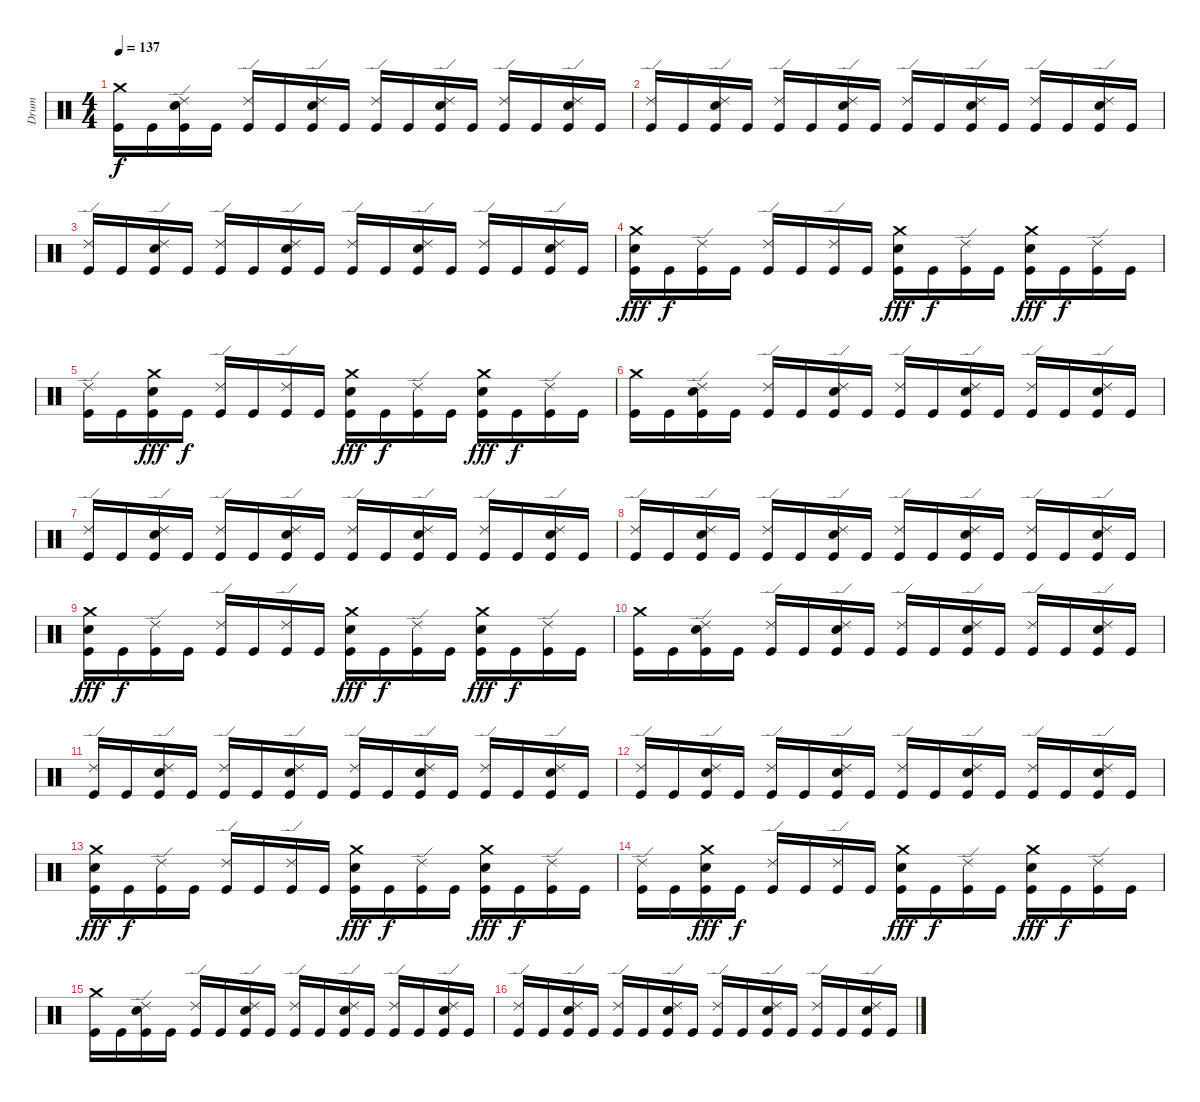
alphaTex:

\track ("Drum" "Drum") {instrument percussion}
\staff {score}
\articulation defaults
\ts (4 4)
\tempo 137
\clef neutral
\ks c
("Crash medium (hit)" "Kick (hit)").16{dy f} "Kick (hit)".16 ("Ride (edge) 2" "Snare (hit) 2" "Kick (hit)").16 "Kick (hit)".16 ("Ride (edge) 2" "Kick (hit)").16 "Kick (hit)".16 ("Ride (edge) 2" "Snare (hit) 2" "Kick (hit)").16 "Kick (hit)".16 ("Ride (edge) 2" "Kick (hit)").16 "Kick (hit)".16 ("Ride (edge) 2" "Snare (hit) 2" "Kick (hit)").16 "Kick (hit)".16 ("Ride (edge) 2" "Kick (hit)").16 "Kick (hit)".16 ("Ride (edge) 2" "Snare (hit) 2" "Kick (hit)").16 "Kick (hit)".16 |
("Ride (edge) 2" "Kick (hit)").16 "Kick (hit)".16 ("Ride (edge) 2" "Snare (hit) 2" "Kick (hit)").16 "Kick (hit)".16 ("Ride (edge) 2" "Kick (hit)").16 "Kick (hit)".16 ("Ride (edge) 2" "Snare (hit) 2" "Kick (hit)").16 "Kick (hit)".16 ("Ride (edge) 2" "Kick (hit)").16 "Kick (hit)".16 ("Ride (edge) 2" "Snare (hit) 2" "Kick (hit)").16 "Kick (hit)".16 ("Ride (edge) 2" "Kick (hit)").16 "Kick (hit)".16 ("Ride (edge) 2" "Snare (hit) 2" "Kick (hit)").16 "Kick (hit)".16 |
("Ride (edge) 2" "Kick (hit)").16 "Kick (hit)".16 ("Ride (edge) 2" "Snare (hit) 2" "Kick (hit)").16 "Kick (hit)".16 ("Ride (edge) 2" "Kick (hit)").16 "Kick (hit)".16 ("Ride (edge) 2" "Snare (hit) 2" "Kick (hit)").16 "Kick (hit)".16 ("Ride (edge) 2" "Kick (hit)").16 "Kick (hit)".16 ("Ride (edge) 2" "Snare (hit) 2" "Kick (hit)").16 "Kick (hit)".16 ("Ride (edge) 2" "Kick (hit)").16 "Kick (hit)".16 ("Ride (edge) 2" "Snare (hit) 2" "Kick (hit)").16 "Kick (hit)".16 |
("Crash medium (hit)" "Snare (hit) 2" "Kick (hit)").16{dy fff} "Kick (hit)".16{dy f} ("Ride (edge) 2" "Kick (hit)").16 "Kick (hit)".16 ("Ride (edge) 2" "Kick (hit)").16 "Kick (hit)".16 ("Ride (edge) 2" "Kick (hit)").16 "Kick (hit)".16 ("Crash medium (hit)" "Snare (hit) 2" "Kick (hit)").16{dy fff} "Kick (hit)".16{dy f} ("Ride (edge) 2" "Kick (hit)").16 "Kick (hit)".16 ("Crash medium (hit)" "Snare (hit) 2" "Kick (hit)").16{dy fff} "Kick (hit)".16{dy f} ("Ride (edge) 2" "Kick (hit)").16 "Kick (hit)".16 |
("Ride (edge) 2" "Kick (hit)").16 "Kick (hit)".16 ("Crash medium (hit)" "Snare (hit) 2" "Kick (hit)").16{dy fff} "Kick (hit)".16{dy f} ("Ride (edge) 2" "Kick (hit)").16 "Kick (hit)".16 ("Ride (edge) 2" "Kick (hit)").16 "Kick (hit)".16 ("Crash medium (hit)" "Snare (hit) 2" "Kick (hit)").16{dy fff} "Kick (hit)".16{dy f} ("Ride (edge) 2" "Kick (hit)").16 "Kick (hit)".16 ("Crash medium (hit)" "Snare (hit) 2" "Kick (hit)").16{dy fff} "Kick (hit)".16{dy f} ("Ride (edge) 2" "Kick (hit)").16 "Kick (hit)".16 |
("Crash medium (hit)" "Kick (hit)").16 "Kick (hit)".16 ("Ride (edge) 2" "Snare (hit) 2" "Kick (hit)").16 "Kick (hit)".16 ("Ride (edge) 2" "Kick (hit)").16 "Kick (hit)".16 ("Ride (edge) 2" "Snare (hit) 2" "Kick (hit)").16 "Kick (hit)".16 ("Ride (edge) 2" "Kick (hit)").16 "Kick (hit)".16 ("Ride (edge) 2" "Snare (hit) 2" "Kick (hit)").16 "Kick (hit)".16 ("Ride (edge) 2" "Kick (hit)").16 "Kick (hit)".16 ("Ride (edge) 2" "Snare (hit) 2" "Kick (hit)").16 "Kick (hit)".16 |
("Ride (edge) 2" "Kick (hit)").16 "Kick (hit)".16 ("Ride (edge) 2" "Snare (hit) 2" "Kick (hit)").16 "Kick (hit)".16 ("Ride (edge) 2" "Kick (hit)").16 "Kick (hit)".16 ("Ride (edge) 2" "Snare (hit) 2" "Kick (hit)").16 "Kick (hit)".16 ("Ride (edge) 2" "Kick (hit)").16 "Kick (hit)".16 ("Ride (edge) 2" "Snare (hit) 2" "Kick (hit)").16 "Kick (hit)".16 ("Ride (edge) 2" "Kick (hit)").16 "Kick (hit)".16 ("Ride (edge) 2" "Snare (hit) 2" "Kick (hit)").16 "Kick (hit)".16 |
("Ride (edge) 2" "Kick (hit)").16 "Kick (hit)".16 ("Ride (edge) 2" "Snare (hit) 2" "Kick (hit)").16 "Kick (hit)".16 ("Ride (edge) 2" "Kick (hit)").16 "Kick (hit)".16 ("Ride (edge) 2" "Snare (hit) 2" "Kick (hit)").16 "Kick (hit)".16 ("Ride (edge) 2" "Kick (hit)").16 "Kick (hit)".16 ("Ride (edge) 2" "Snare (hit) 2" "Kick (hit)").16 "Kick (hit)".16 ("Ride (edge) 2" "Kick (hit)").16 "Kick (hit)".16 ("Ride (edge) 2" "Snare (hit) 2" "Kick (hit)").16 "Kick (hit)".16 |
("Crash medium (hit)" "Snare (hit) 2" "Kick (hit)").16{dy fff} "Kick (hit)".16{dy f} ("Ride (edge) 2" "Kick (hit)").16 "Kick (hit)".16 ("Ride (edge) 2" "Kick (hit)").16 "Kick (hit)".16 ("Ride (edge) 2" "Kick (hit)").16 "Kick (hit)".16 ("Crash medium (hit)" "Snare (hit) 2" "Kick (hit)").16{dy fff} "Kick (hit)".16{dy f} ("Ride (edge) 2" "Kick (hit)").16 "Kick (hit)".16 ("Crash medium (hit)" "Snare (hit) 2" "Kick (hit)").16{dy fff} "Kick (hit)".16{dy f} ("Ride (edge) 2" "Kick (hit)").16 "Kick (hit)".16 |
("Crash medium (hit)" "Kick (hit)").16 "Kick (hit)".16 ("Ride (edge) 2" "Snare (hit) 2" "Kick (hit)").16 "Kick (hit)".16 ("Ride (edge) 2" "Kick (hit)").16 "Kick (hit)".16 ("Ride (edge) 2" "Snare (hit) 2" "Kick (hit)").16 "Kick (hit)".16 ("Ride (edge) 2" "Kick (hit)").16 "Kick (hit)".16 ("Ride (edge) 2" "Snare (hit) 2" "Kick (hit)").16 "Kick (hit)".16 ("Ride (edge) 2" "Kick (hit)").16 "Kick (hit)".16 ("Ride (edge) 2" "Snare (hit) 2" "Kick (hit)").16 "Kick (hit)".16 |
("Ride (edge) 2" "Kick (hit)").16 "Kick (hit)".16 ("Ride (edge) 2" "Snare (hit) 2" "Kick (hit)").16 "Kick (hit)".16 ("Ride (edge) 2" "Kick (hit)").16 "Kick (hit)".16 ("Ride (edge) 2" "Snare (hit) 2" "Kick (hit)").16 "Kick (hit)".16 ("Ride (edge) 2" "Kick (hit)").16 "Kick (hit)".16 ("Ride (edge) 2" "Snare (hit) 2" "Kick (hit)").16 "Kick (hit)".16 ("Ride (edge) 2" "Kick (hit)").16 "Kick (hit)".16 ("Ride (edge) 2" "Snare (hit) 2" "Kick (hit)").16 "Kick (hit)".16 |
("Ride (edge) 2" "Kick (hit)").16 "Kick (hit)".16 ("Ride (edge) 2" "Snare (hit) 2" "Kick (hit)").16 "Kick (hit)".16 ("Ride (edge) 2" "Kick (hit)").16 "Kick (hit)".16 ("Ride (edge) 2" "Snare (hit) 2" "Kick (hit)").16 "Kick (hit)".16 ("Ride (edge) 2" "Kick (hit)").16 "Kick (hit)".16 ("Ride (edge) 2" "Snare (hit) 2" "Kick (hit)").16 "Kick (hit)".16 ("Ride (edge) 2" "Kick (hit)").16 "Kick (hit)".16 ("Ride (edge) 2" "Snare (hit) 2" "Kick (hit)").16 "Kick (hit)".16 |
("Crash medium (hit)" "Snare (hit) 2" "Kick (hit)").16{dy fff} "Kick (hit)".16{dy f} ("Ride (edge) 2" "Kick (hit)").16 "Kick (hit)".16 ("Ride (edge) 2" "Kick (hit)").16 "Kick (hit)".16 ("Ride (edge) 2" "Kick (hit)").16 "Kick (hit)".16 ("Crash medium (hit)" "Snare (hit) 2" "Kick (hit)").16{dy fff} "Kick (hit)".16{dy f} ("Ride (edge) 2" "Kick (hit)").16 "Kick (hit)".16 ("Crash medium (hit)" "Snare (hit) 2" "Kick (hit)").16{dy fff} "Kick (hit)".16{dy f} ("Ride (edge) 2" "Kick (hit)").16 "Kick (hit)".16 |
("Ride (edge) 2" "Kick (hit)").16 "Kick (hit)".16 ("Crash medium (hit)" "Snare (hit) 2" "Kick (hit)").16{dy fff} "Kick (hit)".16{dy f} ("Ride (edge) 2" "Kick (hit)").16 "Kick (hit)".16 ("Ride (edge) 2" "Kick (hit)").16 "Kick (hit)".16 ("Crash medium (hit)" "Snare (hit) 2" "Kick (hit)").16{dy fff} "Kick (hit)".16{dy f} ("Ride (edge) 2" "Kick (hit)").16 "Kick (hit)".16 ("Crash medium (hit)" "Snare (hit) 2" "Kick (hit)").16{dy fff} "Kick (hit)".16{dy f} ("Ride (edge) 2" "Kick (hit)").16 "Kick (hit)".16 |
("Crash medium (hit)" "Kick (hit)").16 "Kick (hit)".16 ("Ride (edge) 2" "Snare (hit) 2" "Kick (hit)").16 "Kick (hit)".16 ("Ride (edge) 2" "Kick (hit)").16 "Kick (hit)".16 ("Ride (edge) 2" "Snare (hit) 2" "Kick (hit)").16 "Kick (hit)".16 ("Ride (edge) 2" "Kick (hit)").16 "Kick (hit)".16 ("Ride (edge) 2" "Snare (hit) 2" "Kick (hit)").16 "Kick (hit)".16 ("Ride (edge) 2" "Kick (hit)").16 "Kick (hit)".16 ("Ride (edge) 2" "Snare (hit) 2" "Kick (hit)").16 "Kick (hit)".16 |
("Ride (edge) 2" "Kick (hit)").16 "Kick (hit)".16 ("Ride (edge) 2" "Snare (hit) 2" "Kick (hit)").16 "Kick (hit)".16 ("Ride (edge) 2" "Kick (hit)").16 "Kick (hit)".16 ("Ride (edge) 2" "Snare (hit) 2" "Kick (hit)").16 "Kick (hit)".16 ("Ride (edge) 2" "Kick (hit)").16 "Kick (hit)".16 ("Ride (edge) 2" "Snare (hit) 2" "Kick (hit)").16 "Kick (hit)".16 ("Ride (edge) 2" "Kick (hit)").16 "Kick (hit)".16 ("Ride (edge) 2" "Snare (hit) 2" "Kick (hit)").16 "Kick (hit)".16
